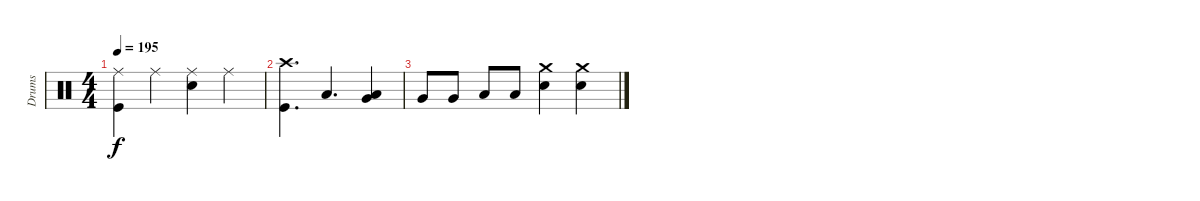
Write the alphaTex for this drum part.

\track ("Drums" "Drums") {instrument percussion}
\staff {score}
\articulation defaults
\ts (4 4)
\tempo 195
\clef neutral
\ks c
("Ride (middle)" "Kick (hit)").4{dy f} "Ride (middle)".4 ("Ride (middle)" "Electric Snare (hit)").4 "Ride (middle)".4 |
("Crash high (hit)" "Kick (hit)").4{d} "Low Tom (hit)".4{d} ("Low Tom (hit)" "Very Low Tom (hit)").4 |
"Very Low Tom (hit)".8 "Very Low Tom (hit)".8 "Low Floor Tom (hit)".8 "Low Floor Tom (hit)".8 ("Crash medium (hit)" "Electric Snare (hit)").4 ("Crash medium (hit)" "Electric Snare (hit)").4
